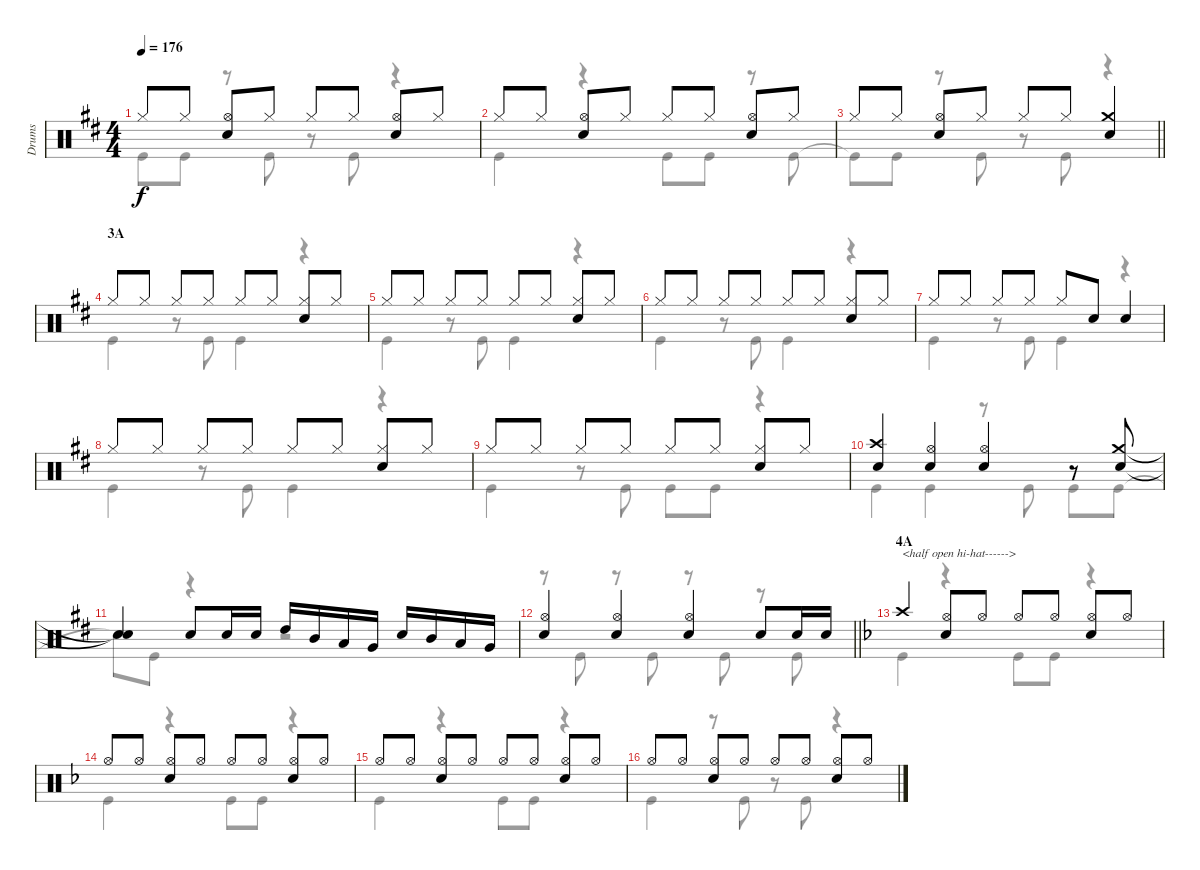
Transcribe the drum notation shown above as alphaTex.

\track ("Drums" "Drums") {instrument percussion}
\staff {score}
\articulation defaults
\voice
\ts (4 4)
\tempo 176
\clef neutral
\ks d "Hi-Hat (closed)".8{dy f} "Hi-Hat (closed)".8
("Hi-Hat (open)" "Snare (hit) 2").8 "Hi-Hat (closed)".8 "Hi-Hat (closed)".8 "Hi-Hat (closed)".8 ("Hi-Hat (open)" "Snare (hit) 2").8 "Hi-Hat (closed)".8 |
"Hi-Hat (closed)".8 "Hi-Hat (closed)".8 ("Hi-Hat (open)" "Snare (hit) 2").8 "Hi-Hat (closed)".8 "Hi-Hat (closed)".8 "Hi-Hat (closed)".8 ("Hi-Hat (open)" "Snare (hit) 2").8 "Hi-Hat (closed)".8 |
\barLineRight lightlight "Hi-Hat (closed)".8 "Hi-Hat (closed)".8
("Hi-Hat (open)" "Snare (hit) 2").8 "Hi-Hat (closed)".8 "Hi-Hat (closed)".8 "Hi-Hat (closed)".8 ("Crash medium (hit)" "Snare (hit) 2").4 |
\section ("" "3A")
"Hi-Hat (closed)".8 "Hi-Hat (closed)".8 "Hi-Hat (closed)".8 "Hi-Hat (closed)".8 "Hi-Hat (closed)".8 "Hi-Hat (closed)".8 ("Hi-Hat (closed)" "Snare (hit) 2").8 "Hi-Hat (closed)".8 |
"Hi-Hat (closed)".8 "Hi-Hat (closed)".8 "Hi-Hat (closed)".8 "Hi-Hat (closed)".8 "Hi-Hat (closed)".8 "Hi-Hat (closed)".8 ("Hi-Hat (closed)" "Snare (hit) 2").8 "Hi-Hat (closed)".8 |
"Hi-Hat (closed)".8 "Hi-Hat (closed)".8 "Hi-Hat (closed)".8 "Hi-Hat (closed)".8 "Hi-Hat (closed)".8 "Hi-Hat (closed)".8 ("Hi-Hat (closed)" "Snare (hit) 2").8 "Hi-Hat (closed)".8 |
"Hi-Hat (closed)".8 "Hi-Hat (closed)".8 "Hi-Hat (closed)".8 "Hi-Hat (closed)".8 "Hi-Hat (closed)".8 "Snare (hit) 2".8 "Snare (hit) 2".4 |
"Hi-Hat (closed)".8 "Hi-Hat (closed)".8 "Hi-Hat (closed)".8 "Hi-Hat (closed)".8 "Hi-Hat (closed)".8 "Hi-Hat (closed)".8 ("Hi-Hat (closed)" "Snare (hit) 2").8 "Hi-Hat (closed)".8 |
"Hi-Hat (closed)".8 "Hi-Hat (closed)".8 "Hi-Hat (closed)".8 "Hi-Hat (closed)".8 "Hi-Hat (closed)".8 "Hi-Hat (closed)".8 ("Hi-Hat (closed)" "Snare (hit) 2").8 "Hi-Hat (closed)".8 |
("Crash high (hit)" "Snare (hit) 2").4 ("Hi-Hat (open)" "Snare (hit) 2").4 ("Hi-Hat (open)" "Snare (hit) 2").4 r.8 ("Crash medium (hit)" "Snare (hit) 2").8 |
("Snare (hit)"{t} "Snare (hit)"{t}).4 "Snare (hit) 2".8 "Snare (hit) 2".16 "Snare (hit) 2".16 "High Tom (hit)".16 "Mid Tom (hit)".16 "Low Tom (hit)".16 "Very Low Tom (hit)".16 "Snare (hit) 2".16 "Mid Tom (hit)".16 "Low Tom (hit)".16 "Very Low Tom (hit)".16 |
\barLineRight lightlight
("Hi-Hat (open)" "Snare (hit) 2").4 ("Hi-Hat (open)" "Snare (hit) 2").4 ("Hi-Hat (open)" "Snare (hit) 2").4 "Snare (hit) 2".8 "Snare (hit) 2".16 "Snare (hit) 2".16 |
\section ("" "4A")
\ks f "Crash high (hit)".4{txt "<half open hi-hat------>"}
("Hi-Hat (open)" "Snare (hit) 2").8 "Hi-Hat (open)".8 "Hi-Hat (open)".8 "Hi-Hat (open)".8 ("Hi-Hat (open)" "Snare (hit) 2").8 "Hi-Hat (open)".8 |
"Hi-Hat (open)".8 "Hi-Hat (open)".8 ("Hi-Hat (open)" "Snare (hit) 2").8 "Hi-Hat (open)".8 "Hi-Hat (open)".8 "Hi-Hat (open)".8 ("Hi-Hat (open)" "Snare (hit) 2").8 "Hi-Hat (open)".8 |
"Hi-Hat (open)".8 "Hi-Hat (open)".8 ("Hi-Hat (open)" "Snare (hit) 2").8 "Hi-Hat (open)".8 "Hi-Hat (open)".8 "Hi-Hat (open)".8 ("Hi-Hat (open)" "Snare (hit) 2").8 "Hi-Hat (open)".8 |
"Hi-Hat (open)".8 "Hi-Hat (open)".8 ("Hi-Hat (open)" "Snare (hit) 2").8 "Hi-Hat (open)".8 "Hi-Hat (open)".8 "Hi-Hat (open)".8 ("Hi-Hat (open)" "Snare (hit) 2").8 "Hi-Hat (open)".8
\voice
\clef neutral
\ottava regular
\simile none
\ks d "Kick (hit)".8{dy f} "Kick (hit)".8
r.8 "Kick (hit)".8 r.8 "Kick (hit)".8 r.4 |
"Kick (hit)".4 r.4 "Kick (hit)".8 "Kick (hit)".8 r.8 "Kick (hit)".8 |
\barLineRight lightlight "Kick (hit)"{t}.8 "Kick (hit)".8
r.8 "Kick (hit)".8 r.8 "Kick (hit)".8 r.4 |
"Kick (hit)".4 r.8 "Kick (hit)".8 "Kick (hit)".4 r.4 |
"Kick (hit)".4 r.8 "Kick (hit)".8 "Kick (hit)".4 r.4 |
"Kick (hit)".4 r.8 "Kick (hit)".8 "Kick (hit)".4 r.4 |
"Kick (hit)".4 r.8 "Kick (hit)".8 "Kick (hit)".4 r.4 |
"Kick (hit)".4 r.8 "Kick (hit)".8 "Kick (hit)".4 r.4 |
"Kick (hit)".4 r.8 "Kick (hit)".8 "Kick (hit)".8 "Kick (hit)".8 r.4 |
"Kick (hit)".4 "Kick (hit)".4 r.8 "Kick (hit)".8 "Kick (hit)".8 "Kick (hit)".8 |
"Snare (hit)"{t}.8 "Kick (hit)".8 r.4 r.2 |
\barLineRight lightlight
r.8 "Kick (hit)".8 r.8 "Kick (hit)".8 r.8 "Kick (hit)".8 r.8 "Kick (hit)".8 |
\ks f "Kick (hit)".4
r.4 "Kick (hit)".8 "Kick (hit)".8 r.4 |
"Kick (hit)".4 r.4 "Kick (hit)".8 "Kick (hit)".8 r.4 |
"Kick (hit)".4 r.4 "Kick (hit)".8 "Kick (hit)".8 r.4 |
"Kick (hit)".4 r.8 "Kick (hit)".8 r.8 "Kick (hit)".8 r.4
